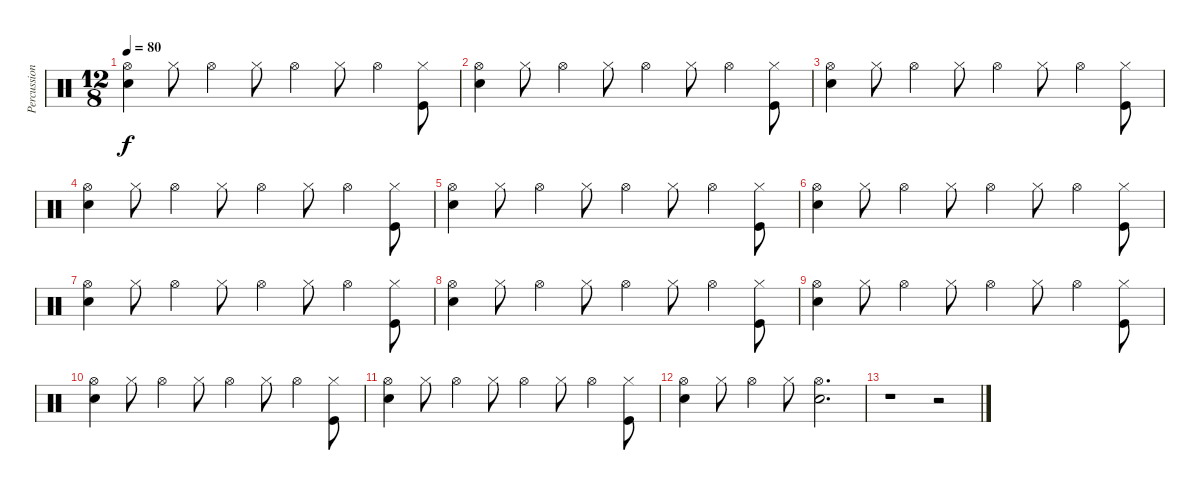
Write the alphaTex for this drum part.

\track ("Percussion" "Percussion") {instrument percussion}
\staff {score}
\articulation defaults
\ts (12 8)
\tempo 80
\clef neutral
\ks c
("Hi-Hat (open)" "Snare (hit) 2").4{dy f} "Hi-Hat (closed)".8 "Hi-Hat (open)".4 "Hi-Hat (closed)".8 "Hi-Hat (open)".4 "Hi-Hat (closed)".8 "Hi-Hat (open)".4 ("Hi-Hat (closed)" "Kick (hit)").8 |
("Hi-Hat (open)" "Snare (hit) 2").4 "Hi-Hat (closed)".8 "Hi-Hat (open)".4 "Hi-Hat (closed)".8 "Hi-Hat (open)".4 "Hi-Hat (closed)".8 "Hi-Hat (open)".4 ("Hi-Hat (closed)" "Kick (hit)").8 |
("Hi-Hat (open)" "Snare (hit) 2").4 "Hi-Hat (closed)".8 "Hi-Hat (open)".4 "Hi-Hat (closed)".8 "Hi-Hat (open)".4 "Hi-Hat (closed)".8 "Hi-Hat (open)".4 ("Hi-Hat (closed)" "Kick (hit)").8 |
("Hi-Hat (open)" "Snare (hit) 2").4 "Hi-Hat (closed)".8 "Hi-Hat (open)".4 "Hi-Hat (closed)".8 "Hi-Hat (open)".4 "Hi-Hat (closed)".8 "Hi-Hat (open)".4 ("Hi-Hat (closed)" "Kick (hit)").8 |
("Hi-Hat (open)" "Snare (hit) 2").4 "Hi-Hat (closed)".8 "Hi-Hat (open)".4 "Hi-Hat (closed)".8 "Hi-Hat (open)".4 "Hi-Hat (closed)".8 "Hi-Hat (open)".4 ("Hi-Hat (closed)" "Kick (hit)").8 |
("Hi-Hat (open)" "Snare (hit) 2").4 "Hi-Hat (closed)".8 "Hi-Hat (open)".4 "Hi-Hat (closed)".8 "Hi-Hat (open)".4 "Hi-Hat (closed)".8 "Hi-Hat (open)".4 ("Hi-Hat (closed)" "Kick (hit)").8 |
("Hi-Hat (open)" "Snare (hit) 2").4 "Hi-Hat (closed)".8 "Hi-Hat (open)".4 "Hi-Hat (closed)".8 "Hi-Hat (open)".4 "Hi-Hat (closed)".8 "Hi-Hat (open)".4 ("Hi-Hat (closed)" "Kick (hit)").8 |
("Hi-Hat (open)" "Snare (hit) 2").4 "Hi-Hat (closed)".8 "Hi-Hat (open)".4 "Hi-Hat (closed)".8 "Hi-Hat (open)".4 "Hi-Hat (closed)".8 "Hi-Hat (open)".4 ("Hi-Hat (closed)" "Kick (hit)").8 |
("Hi-Hat (open)" "Snare (hit) 2").4 "Hi-Hat (closed)".8 "Hi-Hat (open)".4 "Hi-Hat (closed)".8 "Hi-Hat (open)".4 "Hi-Hat (closed)".8 "Hi-Hat (open)".4 ("Hi-Hat (closed)" "Kick (hit)").8 |
("Hi-Hat (open)" "Snare (hit) 2").4 "Hi-Hat (closed)".8 "Hi-Hat (open)".4 "Hi-Hat (closed)".8 "Hi-Hat (open)".4 "Hi-Hat (closed)".8 "Hi-Hat (open)".4 ("Hi-Hat (closed)" "Kick (hit)").8 |
("Hi-Hat (open)" "Snare (hit) 2").4 "Hi-Hat (closed)".8 "Hi-Hat (open)".4 "Hi-Hat (closed)".8 "Hi-Hat (open)".4 "Hi-Hat (closed)".8 "Hi-Hat (open)".4 ("Hi-Hat (closed)" "Kick (hit)").8 |
("Hi-Hat (open)" "Snare (hit) 2").4 "Hi-Hat (closed)".8 "Hi-Hat (open)".4 "Hi-Hat (closed)".8 ("Hi-Hat (open)" "Snare (hit) 2").2{d} |
r.1 r.2
